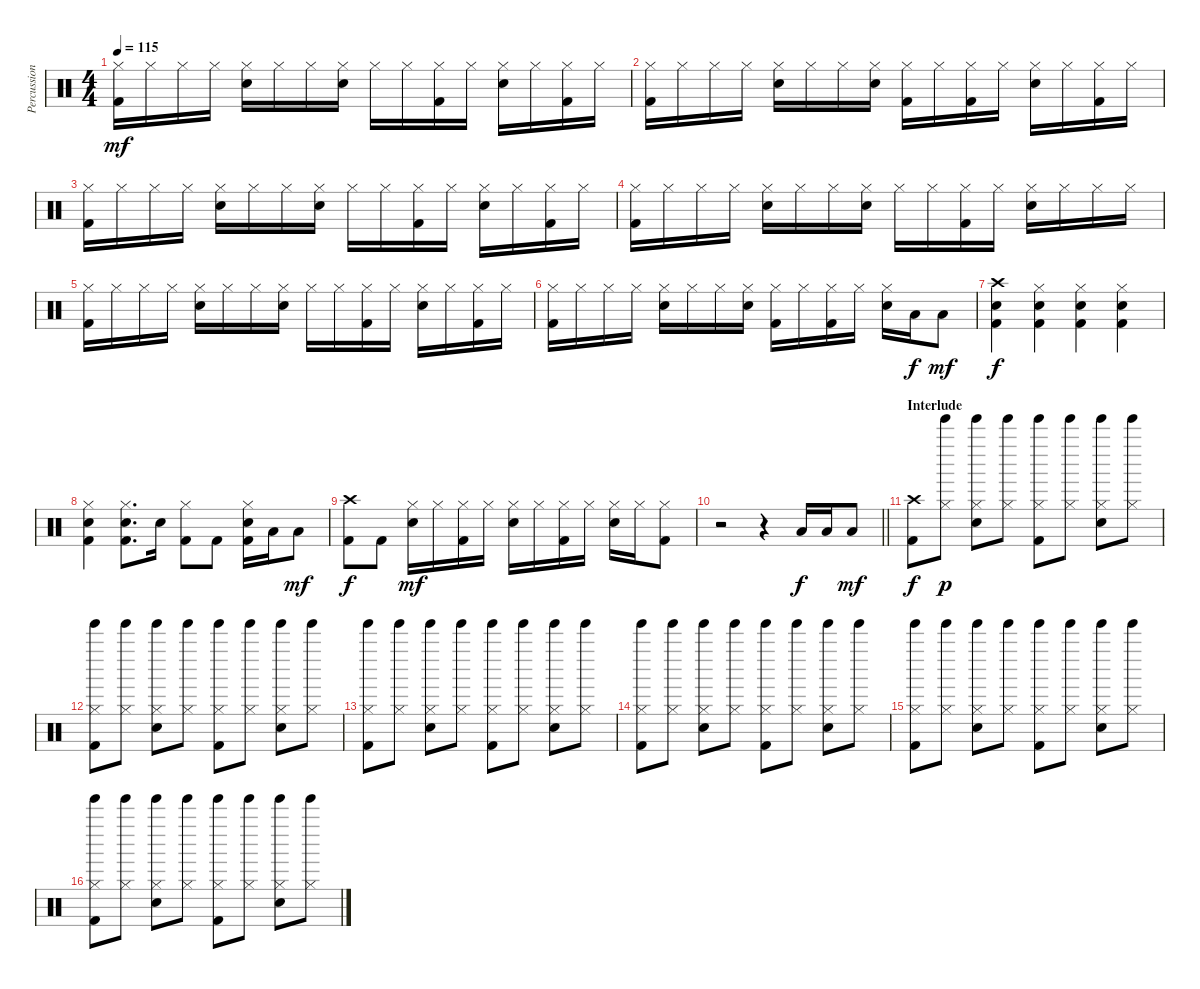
\track ("Percussion" "Percussion") {instrument percussion}
\staff {score}
\articulation defaults
\ts (4 4)
\tempo 115
\clef neutral
\ks c
("Hi-Hat (closed)" "Kick (hit) 2").16{dy mf} "Hi-Hat (closed)".16 "Hi-Hat (closed)".16 "Hi-Hat (closed)".16 ("Hi-Hat (closed)" "Electric Snare (hit)").16 "Hi-Hat (closed)".16 "Hi-Hat (closed)".16 ("Hi-Hat (closed)" "Electric Snare (hit)").16 "Hi-Hat (closed)".16 "Hi-Hat (closed)".16 ("Hi-Hat (closed)" "Kick (hit) 2").16 "Hi-Hat (closed)".16 ("Hi-Hat (closed)" "Electric Snare (hit)").16 "Hi-Hat (closed)".16 ("Hi-Hat (closed)" "Kick (hit) 2").16 "Hi-Hat (closed)".16 |
("Hi-Hat (closed)" "Kick (hit) 2").16 "Hi-Hat (closed)".16 "Hi-Hat (closed)".16 "Hi-Hat (closed)".16 ("Hi-Hat (closed)" "Electric Snare (hit)").16 "Hi-Hat (closed)".16 "Hi-Hat (closed)".16 ("Hi-Hat (closed)" "Electric Snare (hit)").16 ("Hi-Hat (closed)" "Kick (hit) 2").16 "Hi-Hat (closed)".16 ("Hi-Hat (closed)" "Kick (hit) 2").16 "Hi-Hat (closed)".16 ("Hi-Hat (closed)" "Electric Snare (hit)").16 "Hi-Hat (closed)".16 ("Hi-Hat (closed)" "Kick (hit) 2").16 "Hi-Hat (closed)".16 |
("Hi-Hat (closed)" "Kick (hit) 2").16 "Hi-Hat (closed)".16 "Hi-Hat (closed)".16 "Hi-Hat (closed)".16 ("Hi-Hat (closed)" "Electric Snare (hit)").16 "Hi-Hat (closed)".16 "Hi-Hat (closed)".16 ("Hi-Hat (closed)" "Electric Snare (hit)").16 "Hi-Hat (closed)".16 "Hi-Hat (closed)".16 ("Hi-Hat (closed)" "Kick (hit) 2").16 "Hi-Hat (closed)".16 ("Hi-Hat (closed)" "Electric Snare (hit)").16 "Hi-Hat (closed)".16 ("Hi-Hat (closed)" "Kick (hit) 2").16 "Hi-Hat (closed)".16 |
("Hi-Hat (closed)" "Kick (hit) 2").16 "Hi-Hat (closed)".16 "Hi-Hat (closed)".16 "Hi-Hat (closed)".16 ("Hi-Hat (closed)" "Electric Snare (hit)").16 "Hi-Hat (closed)".16 "Hi-Hat (closed)".16 ("Hi-Hat (closed)" "Electric Snare (hit)").16 "Hi-Hat (closed)".16 "Hi-Hat (closed)".16 ("Hi-Hat (closed)" "Kick (hit) 2").16 "Hi-Hat (closed)".16 ("Hi-Hat (closed)" "Electric Snare (hit)").16 "Hi-Hat (closed)".16 "Hi-Hat (closed)".16 "Hi-Hat (closed)".16 |
("Hi-Hat (closed)" "Kick (hit) 2").16 "Hi-Hat (closed)".16 "Hi-Hat (closed)".16 "Hi-Hat (closed)".16 ("Hi-Hat (closed)" "Electric Snare (hit)").16 "Hi-Hat (closed)".16 "Hi-Hat (closed)".16 ("Hi-Hat (closed)" "Electric Snare (hit)").16 "Hi-Hat (closed)".16 "Hi-Hat (closed)".16 ("Hi-Hat (closed)" "Kick (hit) 2").16 "Hi-Hat (closed)".16 ("Hi-Hat (closed)" "Electric Snare (hit)").16 "Hi-Hat (closed)".16 ("Hi-Hat (closed)" "Kick (hit) 2").16 "Hi-Hat (closed)".16 |
("Hi-Hat (closed)" "Kick (hit) 2").16 "Hi-Hat (closed)".16 "Hi-Hat (closed)".16 "Hi-Hat (closed)".16 ("Hi-Hat (closed)" "Electric Snare (hit)").16 "Hi-Hat (closed)".16 "Hi-Hat (closed)".16 ("Hi-Hat (closed)" "Electric Snare (hit)").16 ("Hi-Hat (closed)" "Kick (hit) 2").16 "Hi-Hat (closed)".16 ("Hi-Hat (closed)" "Kick (hit) 2").16 "Hi-Hat (closed)".16 ("Hi-Hat (closed)" "Electric Snare (hit)").16 "Low Tom (hit)".16{dy f} "Low Tom (hit)".8{dy mf} |
("Crash high (hit)" "Electric Snare (hit)" "Kick (hit) 2").4{dy f} ("Hi-Hat (closed)" "Electric Snare (hit)" "Kick (hit) 2").4 ("Hi-Hat (closed)" "Electric Snare (hit)" "Kick (hit) 2").4 ("Hi-Hat (closed)" "Electric Snare (hit)" "Kick (hit) 2").4 |
("Hi-Hat (closed)" "Electric Snare (hit)" "Kick (hit) 2").4 ("Hi-Hat (closed)" "Electric Snare (hit)" "Kick (hit) 2").8{d} "Electric Snare (hit)".16 ("Hi-Hat (closed)" "Kick (hit) 2").8 "Kick (hit) 2".8 ("Hi-Hat (closed)" "Electric Snare (hit)" "Kick (hit) 2").16 "Low Tom (hit)".16 "Low Tom (hit)".8{dy mf} |
("Crash high (hit)" "Kick (hit) 2").8{dy f} "Kick (hit) 2".8 ("Hi-Hat (closed)" "Electric Snare (hit)").16{dy mf} "Hi-Hat (closed)".16 ("Hi-Hat (closed)" "Kick (hit) 2").16 "Hi-Hat (closed)".16 ("Hi-Hat (closed)" "Electric Snare (hit)").16 "Hi-Hat (closed)".16 ("Hi-Hat (closed)" "Kick (hit) 2").16 "Hi-Hat (closed)".16 ("Hi-Hat (closed)" "Electric Snare (hit)").16 "Hi-Hat (closed)".16 ("Hi-Hat (closed)" "Kick (hit) 2").8 |
\barLineRight lightlight
r.2 r.4 "Low Tom (hit)".16{dy f} "Low Tom (hit)".16 "Low Tom (hit)".8{dy mf} |
\section ("" "Interlude")
("Crash high (hit)" "Kick (hit) 2").8{dy f} ("Hi-Hat (closed)" "Tinkle Bell (hit)").8{dy p} ("Hi-Hat (closed)" "Tinkle Bell (hit)" "Electric Snare (hit)").8 ("Hi-Hat (closed)" "Tinkle Bell (hit)").8 ("Hi-Hat (closed)" "Tinkle Bell (hit)" "Kick (hit) 2").8 ("Hi-Hat (closed)" "Tinkle Bell (hit)").8 ("Hi-Hat (closed)" "Tinkle Bell (hit)" "Electric Snare (hit)").8 ("Hi-Hat (closed)" "Tinkle Bell (hit)").8 |
("Hi-Hat (closed)" "Tinkle Bell (hit)" "Kick (hit) 2").8 ("Hi-Hat (closed)" "Tinkle Bell (hit)").8 ("Hi-Hat (closed)" "Tinkle Bell (hit)" "Electric Snare (hit)").8 ("Hi-Hat (closed)" "Tinkle Bell (hit)").8 ("Hi-Hat (closed)" "Tinkle Bell (hit)" "Kick (hit) 2").8 ("Hi-Hat (closed)" "Tinkle Bell (hit)").8 ("Hi-Hat (closed)" "Tinkle Bell (hit)" "Electric Snare (hit)").8 ("Hi-Hat (closed)" "Tinkle Bell (hit)").8 |
("Hi-Hat (closed)" "Tinkle Bell (hit)" "Kick (hit) 2").8 ("Hi-Hat (closed)" "Tinkle Bell (hit)").8 ("Hi-Hat (closed)" "Tinkle Bell (hit)" "Electric Snare (hit)").8 ("Hi-Hat (closed)" "Tinkle Bell (hit)").8 ("Hi-Hat (closed)" "Tinkle Bell (hit)" "Kick (hit) 2").8 ("Hi-Hat (closed)" "Tinkle Bell (hit)").8 ("Hi-Hat (closed)" "Tinkle Bell (hit)" "Electric Snare (hit)").8 ("Hi-Hat (closed)" "Tinkle Bell (hit)").8 |
("Hi-Hat (closed)" "Tinkle Bell (hit)" "Kick (hit) 2").8 ("Hi-Hat (closed)" "Tinkle Bell (hit)").8 ("Hi-Hat (closed)" "Tinkle Bell (hit)" "Electric Snare (hit)").8 ("Hi-Hat (closed)" "Tinkle Bell (hit)").8 ("Hi-Hat (closed)" "Tinkle Bell (hit)" "Kick (hit) 2").8 ("Hi-Hat (closed)" "Tinkle Bell (hit)").8 ("Hi-Hat (closed)" "Tinkle Bell (hit)" "Electric Snare (hit)").8 ("Hi-Hat (closed)" "Tinkle Bell (hit)").8 |
("Hi-Hat (closed)" "Tinkle Bell (hit)" "Kick (hit) 2").8 ("Hi-Hat (closed)" "Tinkle Bell (hit)").8 ("Hi-Hat (closed)" "Tinkle Bell (hit)" "Electric Snare (hit)").8 ("Hi-Hat (closed)" "Tinkle Bell (hit)").8 ("Hi-Hat (closed)" "Tinkle Bell (hit)" "Kick (hit) 2").8 ("Hi-Hat (closed)" "Tinkle Bell (hit)").8 ("Hi-Hat (closed)" "Tinkle Bell (hit)" "Electric Snare (hit)").8 ("Hi-Hat (closed)" "Tinkle Bell (hit)").8 |
("Hi-Hat (closed)" "Tinkle Bell (hit)" "Kick (hit) 2").8 ("Hi-Hat (closed)" "Tinkle Bell (hit)").8 ("Hi-Hat (closed)" "Tinkle Bell (hit)" "Electric Snare (hit)").8 ("Hi-Hat (closed)" "Tinkle Bell (hit)").8 ("Hi-Hat (closed)" "Tinkle Bell (hit)" "Kick (hit) 2").8 ("Hi-Hat (closed)" "Tinkle Bell (hit)").8 ("Hi-Hat (closed)" "Tinkle Bell (hit)" "Electric Snare (hit)").8 ("Hi-Hat (closed)" "Tinkle Bell (hit)").8
